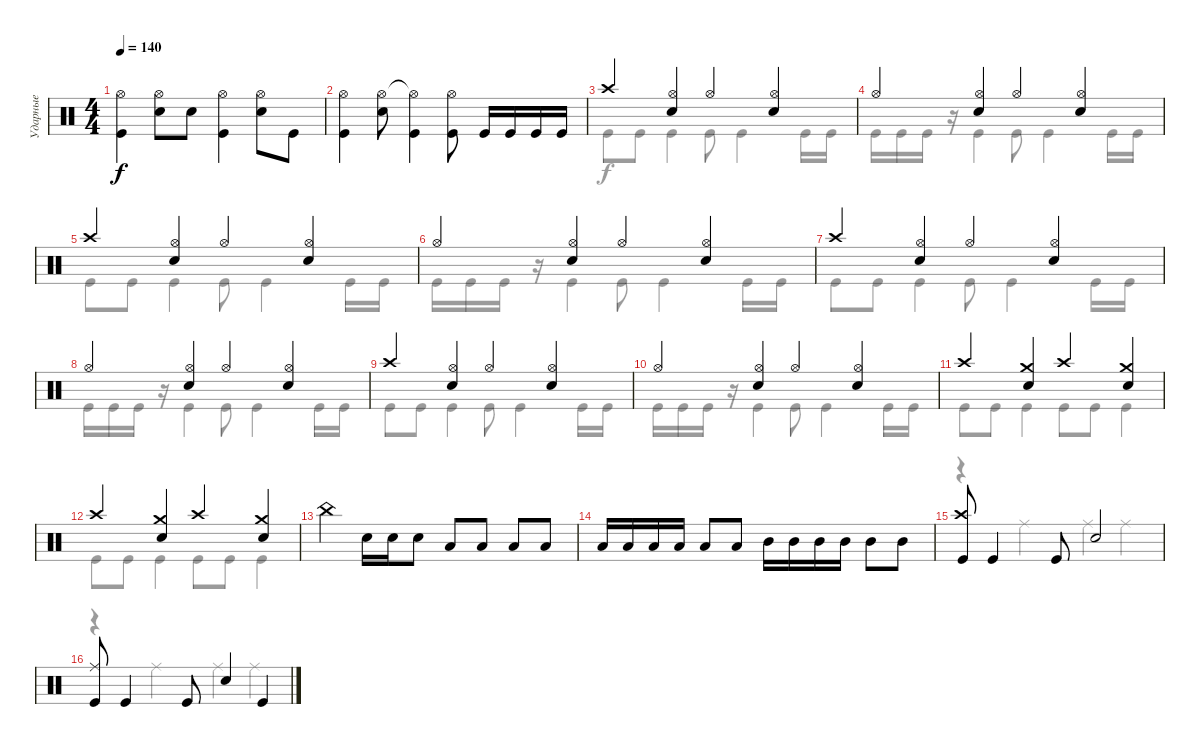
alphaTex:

\track ("Ударные" "Ударные") {instrument percussion}
\staff {score}
\articulation defaults
\voice
\ts (4 4)
\tempo 140
\clef neutral
\ks c
("Hi-Hat (open)" "Kick (hit)").4{dy f} ("Hi-Hat (open)" "Electric Snare (hit)").8 "Electric Snare (hit)".8 ("Hi-Hat (open)" "Kick (hit)").4 ("Hi-Hat (open)" "Electric Snare (hit)").8 "Kick (hit)".8 |
("Hi-Hat (open)" "Kick (hit)").4 ("Hi-Hat (open)" "Electric Snare (hit)").8 ("Hi-Hat (open)"{t} "Kick (hit)").4 ("Hi-Hat (open)" "Kick (hit)").8 "Kick (hit)".16 "Kick (hit)".16 "Kick (hit)".16 "Kick (hit)".16 |
"Crash high (hit)".4 ("Hi-Hat (open)" "Electric Snare (hit)").4 "Hi-Hat (open)".4 ("Hi-Hat (open)" "Electric Snare (hit)").4 |
"Hi-Hat (open)".4 ("Hi-Hat (open)" "Electric Snare (hit)").4 "Hi-Hat (open)".4 ("Hi-Hat (open)" "Electric Snare (hit)").4 |
"Crash high (hit)".4 ("Hi-Hat (open)" "Electric Snare (hit)").4 "Hi-Hat (open)".4 ("Hi-Hat (open)" "Electric Snare (hit)").4 |
"Hi-Hat (open)".4 ("Hi-Hat (open)" "Electric Snare (hit)").4 "Hi-Hat (open)".4 ("Hi-Hat (open)" "Electric Snare (hit)").4 |
"Crash high (hit)".4 ("Hi-Hat (open)" "Electric Snare (hit)").4 "Hi-Hat (open)".4 ("Hi-Hat (open)" "Electric Snare (hit)").4 |
"Hi-Hat (open)".4 ("Hi-Hat (open)" "Electric Snare (hit)").4 "Hi-Hat (open)".4 ("Hi-Hat (open)" "Electric Snare (hit)").4 |
"Crash high (hit)".4 ("Hi-Hat (open)" "Electric Snare (hit)").4 "Hi-Hat (open)".4 ("Hi-Hat (open)" "Electric Snare (hit)").4 |
"Hi-Hat (open)".4 ("Hi-Hat (open)" "Electric Snare (hit)").4 "Hi-Hat (open)".4 ("Hi-Hat (open)" "Electric Snare (hit)").4 |
"Crash high (hit)".4 ("Crash medium (hit)" "Electric Snare (hit)").4 "Crash high (hit)".4 ("Crash medium (hit)" "Electric Snare (hit)").4 |
"Crash high (hit)".4 ("Crash medium (hit)" "Electric Snare (hit)").4 "Crash high (hit)".4 ("Crash medium (hit)" "Electric Snare (hit)").4 |
"China (hit)".4 "Electric Snare (hit)".16 "Electric Snare (hit)".16 "Electric Snare (hit)".8 "Low Floor Tom (hit)".8 "Low Floor Tom (hit)".8 "Low Floor Tom (hit)".8 "Low Floor Tom (hit)".8 |
"Low Tom (hit)".16{balance 0} "Low Tom (hit)".16 "Low Tom (hit)".16 "Low Tom (hit)".16 "Low Tom (hit)".8 "Low Tom (hit)".8 "Mid Tom (hit)".16{balance 16} "Mid Tom (hit)".16 "Mid Tom (hit)".16 "Mid Tom (hit)".16 "Mid Tom (hit)".8 "Mid Tom (hit)".8 |
("Crash high (hit)" "Kick (hit)").8 "Kick (hit)".4 "Kick (hit)".8 "Electric Snare (hit)".2 |
("Ride (middle)" "Kick (hit)").8 "Kick (hit)".4 "Kick (hit)".8 "Electric Snare (hit)".4 "Kick (hit)".4
\voice
\clef neutral
\ottava regular
\simile none
\ks c
|
|
"Kick (hit)".8 "Kick (hit)".8 "Kick (hit)".4 "Kick (hit)".8 "Kick (hit)".4 "Kick (hit)".16 "Kick (hit)".16 |
"Kick (hit)".16 "Kick (hit)".16 "Kick (hit)".16 r.16 "Kick (hit)".4 "Kick (hit)".8 "Kick (hit)".4 "Kick (hit)".16 "Kick (hit)".16 |
"Kick (hit)".8 "Kick (hit)".8 "Kick (hit)".4 "Kick (hit)".8 "Kick (hit)".4 "Kick (hit)".16 "Kick (hit)".16 |
"Kick (hit)".16 "Kick (hit)".16 "Kick (hit)".16 r.16 "Kick (hit)".4 "Kick (hit)".8 "Kick (hit)".4 "Kick (hit)".16 "Kick (hit)".16 |
"Kick (hit)".8 "Kick (hit)".8 "Kick (hit)".4 "Kick (hit)".8 "Kick (hit)".4 "Kick (hit)".16 "Kick (hit)".16 |
"Kick (hit)".16 "Kick (hit)".16 "Kick (hit)".16 r.16 "Kick (hit)".4 "Kick (hit)".8 "Kick (hit)".4 "Kick (hit)".16 "Kick (hit)".16 |
"Kick (hit)".8 "Kick (hit)".8 "Kick (hit)".4 "Kick (hit)".8 "Kick (hit)".4 "Kick (hit)".16 "Kick (hit)".16 |
"Kick (hit)".16 "Kick (hit)".16 "Kick (hit)".16 r.16 "Kick (hit)".4 "Kick (hit)".8 "Kick (hit)".4 "Kick (hit)".16 "Kick (hit)".16 |
"Kick (hit)".8 "Kick (hit)".8 "Kick (hit)".4 "Kick (hit)".8 "Kick (hit)".8 "Kick (hit)".4 |
"Kick (hit)".8 "Kick (hit)".8 "Kick (hit)".4 "Kick (hit)".8 "Kick (hit)".8 "Kick (hit)".4 |
|
|
r.4 "Ride (middle)".4 "Ride (middle)".4 "Ride (middle)".4 |
r.4 "Ride (middle)".4 "Ride (middle)".4 "Ride (middle)".4
